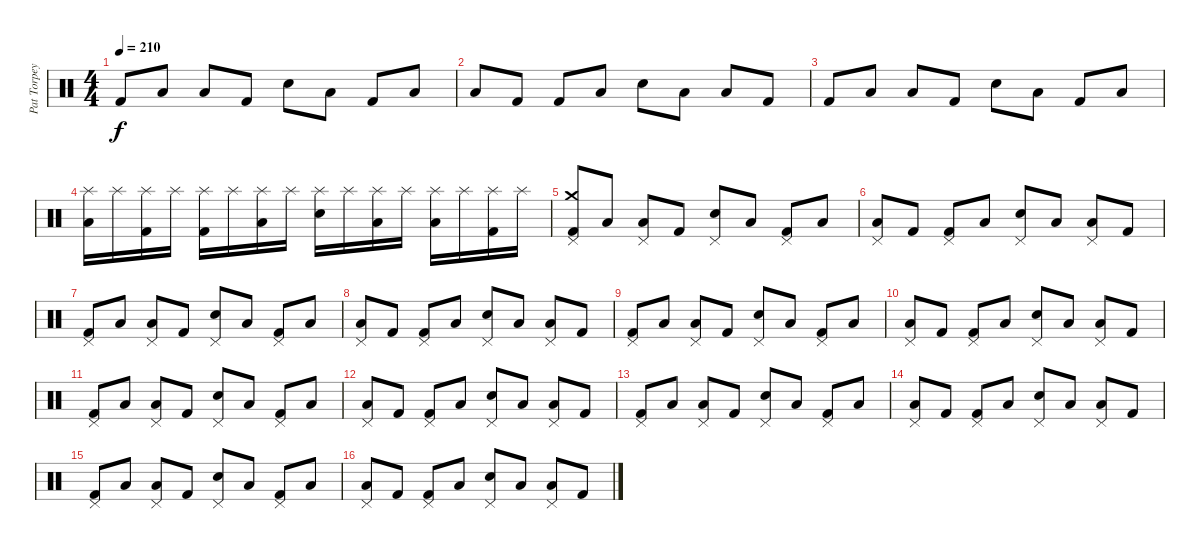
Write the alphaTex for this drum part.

\track ("Pat Torpey" "Pat Torpey") {instrument percussion}
\staff {score}
\articulation defaults
\ts (4 4)
\tempo 210
\clef neutral
\ks c "Kick (hit) 2".8{dy f} "Low Floor Tom (hit)".8 "Low Floor Tom (hit)".8 "Kick (hit) 2".8 "Snare (hit) 2".8 "Low Floor Tom (hit)".8 "Kick (hit) 2".8 "Low Floor Tom (hit)".8
|
"Low Floor Tom (hit)".8 "Kick (hit) 2".8 "Kick (hit) 2".8 "Low Floor Tom (hit)".8 "Snare (hit) 2".8 "Low Floor Tom (hit)".8 "Low Floor Tom (hit)".8 "Kick (hit) 2".8 |
"Kick (hit) 2".8 "Low Floor Tom (hit)".8 "Low Floor Tom (hit)".8 "Kick (hit) 2".8 "Snare (hit) 2".8 "Low Floor Tom (hit)".8 "Kick (hit) 2".8 "Low Floor Tom (hit)".8 |
("Splash (hit)" "Low Floor Tom (hit)").16 "Splash (hit)".16 ("Splash (hit)" "Kick (hit) 2").16 "Splash (hit)".16 ("Splash (hit)" "Kick (hit) 2").16 "Splash (hit)".16 ("Splash (hit)" "Low Floor Tom (hit)").16 "Splash (hit)".16 ("Splash (hit)" "Snare (hit) 2").16 "Splash (hit)".16 ("Splash (hit)" "Low Floor Tom (hit)").16 "Splash (hit)".16 ("Splash (hit)" "Low Floor Tom (hit)").16 "Splash (hit)".16 ("Splash (hit)" "Kick (hit) 2").16 "Splash (hit)".16 |
("Crash medium (hit)" "Pedal Hi-Hat (hit)" "Kick (hit) 2").8 "Low Floor Tom (hit)".8 ("Pedal Hi-Hat (hit)" "Low Floor Tom (hit)").8 "Kick (hit) 2".8 ("Pedal Hi-Hat (hit)" "Snare (hit) 2").8 "Low Floor Tom (hit)".8 ("Pedal Hi-Hat (hit)" "Kick (hit) 2").8 "Low Floor Tom (hit)".8 |
("Pedal Hi-Hat (hit)" "Low Floor Tom (hit)").8 "Kick (hit) 2".8 ("Pedal Hi-Hat (hit)" "Kick (hit) 2").8 "Low Floor Tom (hit)".8 ("Pedal Hi-Hat (hit)" "Snare (hit) 2").8 "Low Floor Tom (hit)".8 ("Pedal Hi-Hat (hit)" "Low Floor Tom (hit)").8 "Kick (hit) 2".8 |
("Pedal Hi-Hat (hit)" "Kick (hit) 2").8 "Low Floor Tom (hit)".8 ("Pedal Hi-Hat (hit)" "Low Floor Tom (hit)").8 "Kick (hit) 2".8 ("Pedal Hi-Hat (hit)" "Snare (hit) 2").8 "Low Floor Tom (hit)".8 ("Pedal Hi-Hat (hit)" "Kick (hit) 2").8 "Low Floor Tom (hit)".8 |
("Pedal Hi-Hat (hit)" "Low Floor Tom (hit)").8 "Kick (hit) 2".8 ("Pedal Hi-Hat (hit)" "Kick (hit) 2").8 "Low Floor Tom (hit)".8 ("Pedal Hi-Hat (hit)" "Snare (hit) 2").8 "Low Floor Tom (hit)".8 ("Pedal Hi-Hat (hit)" "Low Floor Tom (hit)").8 "Kick (hit) 2".8 |
("Pedal Hi-Hat (hit)" "Kick (hit) 2").8 "Low Floor Tom (hit)".8 ("Pedal Hi-Hat (hit)" "Low Floor Tom (hit)").8 "Kick (hit) 2".8 ("Pedal Hi-Hat (hit)" "Snare (hit) 2").8 "Low Floor Tom (hit)".8 ("Pedal Hi-Hat (hit)" "Kick (hit) 2").8 "Low Floor Tom (hit)".8 |
("Pedal Hi-Hat (hit)" "Low Floor Tom (hit)").8 "Kick (hit) 2".8 ("Pedal Hi-Hat (hit)" "Kick (hit) 2").8 "Low Floor Tom (hit)".8 ("Pedal Hi-Hat (hit)" "Snare (hit) 2").8 "Low Floor Tom (hit)".8 ("Pedal Hi-Hat (hit)" "Low Floor Tom (hit)").8 "Kick (hit) 2".8 |
("Pedal Hi-Hat (hit)" "Kick (hit) 2").8 "Low Floor Tom (hit)".8 ("Pedal Hi-Hat (hit)" "Low Floor Tom (hit)").8 "Kick (hit) 2".8 ("Pedal Hi-Hat (hit)" "Snare (hit) 2").8 "Low Floor Tom (hit)".8 ("Pedal Hi-Hat (hit)" "Kick (hit) 2").8 "Low Floor Tom (hit)".8 |
("Pedal Hi-Hat (hit)" "Low Floor Tom (hit)").8 "Kick (hit) 2".8 ("Pedal Hi-Hat (hit)" "Kick (hit) 2").8 "Low Floor Tom (hit)".8 ("Pedal Hi-Hat (hit)" "Snare (hit) 2").8 "Low Floor Tom (hit)".8 ("Pedal Hi-Hat (hit)" "Low Floor Tom (hit)").8 "Kick (hit) 2".8 |
("Pedal Hi-Hat (hit)" "Kick (hit) 2").8 "Low Floor Tom (hit)".8 ("Pedal Hi-Hat (hit)" "Low Floor Tom (hit)").8 "Kick (hit) 2".8 ("Pedal Hi-Hat (hit)" "Snare (hit) 2").8 "Low Floor Tom (hit)".8 ("Pedal Hi-Hat (hit)" "Kick (hit) 2").8 "Low Floor Tom (hit)".8 |
("Pedal Hi-Hat (hit)" "Low Floor Tom (hit)").8 "Kick (hit) 2".8 ("Pedal Hi-Hat (hit)" "Kick (hit) 2").8 "Low Floor Tom (hit)".8 ("Pedal Hi-Hat (hit)" "Snare (hit) 2").8 "Low Floor Tom (hit)".8 ("Pedal Hi-Hat (hit)" "Low Floor Tom (hit)").8 "Kick (hit) 2".8 |
("Pedal Hi-Hat (hit)" "Kick (hit) 2").8 "Low Floor Tom (hit)".8 ("Pedal Hi-Hat (hit)" "Low Floor Tom (hit)").8 "Kick (hit) 2".8 ("Pedal Hi-Hat (hit)" "Snare (hit) 2").8 "Low Floor Tom (hit)".8 ("Pedal Hi-Hat (hit)" "Kick (hit) 2").8 "Low Floor Tom (hit)".8 |
("Pedal Hi-Hat (hit)" "Low Floor Tom (hit)").8 "Kick (hit) 2".8 ("Pedal Hi-Hat (hit)" "Kick (hit) 2").8 "Low Floor Tom (hit)".8 ("Pedal Hi-Hat (hit)" "Snare (hit) 2").8 "Low Floor Tom (hit)".8 ("Pedal Hi-Hat (hit)" "Low Floor Tom (hit)").8 "Kick (hit) 2".8
